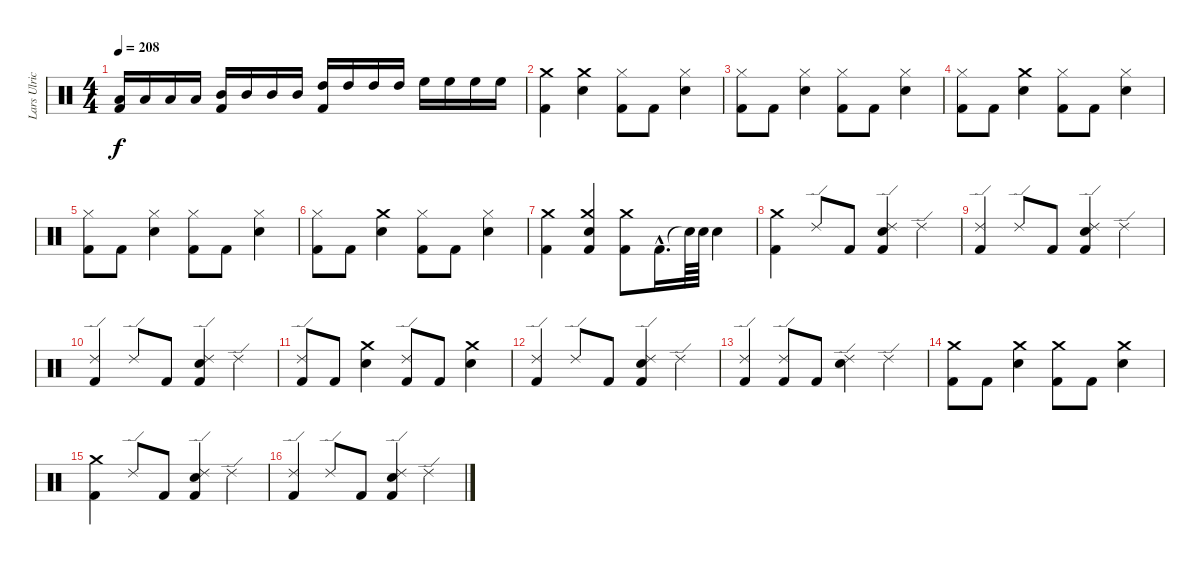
\track ("Lars Ulrich (Drums)" "Lars Ulric") {instrument percussion}
\staff {score}
\articulation defaults
\ts (4 4)
\tempo 208
\clef neutral
\ks c
("Low Tom (hit)" "Kick (hit) 2").16{dy f} "Low Tom (hit)".16 "Low Tom (hit)".16 "Low Tom (hit)".16 ("Mid Tom (hit)" "Kick (hit) 2").16 "Mid Tom (hit)".16 "Mid Tom (hit)".16 "Mid Tom (hit)".16 ("High Tom (hit)" "Kick (hit) 2").16 "High Tom (hit)".16 "High Tom (hit)".16 "High Tom (hit)".16 "High Floor Tom (hit)".16 "High Floor Tom (hit)".16 "High Floor Tom (hit)".16 "High Floor Tom (hit)".16 |
("Kick (hit) 2" "Crash medium (hit)").4 ("Snare (hit) 2" "Crash medium (hit)").4 ("Hi-Hat (closed)" "Kick (hit) 2").8 "Kick (hit) 2".8 ("Hi-Hat (closed)" "Snare (hit) 2").4 |
("Kick (hit) 2" "Hi-Hat (closed)").8 "Kick (hit) 2".8 ("Snare (hit) 2" "Hi-Hat (closed)").4 ("Kick (hit) 2" "Hi-Hat (closed)").8 "Kick (hit) 2".8 ("Snare (hit) 2" "Hi-Hat (closed)").4 |
("Kick (hit) 2" "Hi-Hat (closed)").8 "Kick (hit) 2".8 ("Crash medium (hit)" "Snare (hit) 2").4 ("Kick (hit) 2" "Hi-Hat (closed)").8 "Kick (hit) 2".8 ("Snare (hit) 2" "Hi-Hat (closed)").4 |
("Kick (hit) 2" "Hi-Hat (closed)").8 "Kick (hit) 2".8 ("Snare (hit) 2" "Hi-Hat (closed)").4 ("Kick (hit) 2" "Hi-Hat (closed)").8 "Kick (hit) 2".8 ("Snare (hit) 2" "Hi-Hat (closed)").4 |
("Kick (hit) 2" "Hi-Hat (closed)").8 "Kick (hit) 2".8 ("Crash medium (hit)" "Snare (hit) 2").4 ("Kick (hit) 2" "Hi-Hat (closed)").8 "Kick (hit) 2".8 ("Snare (hit) 2" "Hi-Hat (closed)").4 |
("Kick (hit) 2" "Crash medium (hit)").4 ("Kick (hit) 2" "Snare (hit) 2" "Crash medium (hit)").4 ("Kick (hit) 2" "Crash medium (hit)").8 "Kick (hit) 2"{hac}.16{d} "Snare (hit)"{t}.64 "Snare (hit) 2".64 "Snare (hit) 2".4 |
("Kick (hit) 2" "Crash medium (hit)").4 "Ride (edge) 2".8 "Kick (hit) 2".8 ("Kick (hit) 2" "Snare (hit) 2" "Ride (edge) 2").4 "Ride (edge) 2".4 |
("Kick (hit) 2" "Ride (edge) 2").4 "Ride (edge) 2".8 "Kick (hit) 2".8 ("Kick (hit) 2" "Snare (hit) 2" "Ride (edge) 2").4 "Ride (edge) 2".4 |
("Kick (hit) 2" "Ride (edge) 2").4 "Ride (edge) 2".8 "Kick (hit) 2".8 ("Kick (hit) 2" "Snare (hit) 2" "Ride (edge) 2").4 "Ride (edge) 2".4 |
("Ride (edge) 2" "Kick (hit) 2").8 "Kick (hit) 2".8 ("Snare (hit) 2" "Crash medium (hit)").4 ("Ride (edge) 2" "Kick (hit) 2").8 "Kick (hit) 2".8 ("Snare (hit) 2" "Crash medium (hit)").4 |
("Ride (edge) 2" "Kick (hit) 2").4 "Ride (edge) 2".8 "Kick (hit) 2".8 ("Ride (edge) 2" "Snare (hit) 2" "Kick (hit) 2").4 "Ride (edge) 2".4 |
("Kick (hit) 2" "Ride (edge) 2").4 ("Ride (edge) 2" "Kick (hit) 2").8 "Kick (hit) 2".8 ("Snare (hit) 2" "Ride (edge) 2").4 "Ride (edge) 2".4 |
("Kick (hit) 2" "Crash medium (hit)").8 "Kick (hit) 2".8 ("Snare (hit) 2" "Crash medium (hit)").4 ("Kick (hit) 2" "Crash medium (hit)").8 "Kick (hit) 2".8 ("Snare (hit) 2" "Crash medium (hit)").4 |
("Kick (hit) 2" "Crash medium (hit)").4 "Ride (edge) 2".8 "Kick (hit) 2".8 ("Kick (hit) 2" "Snare (hit) 2" "Ride (edge) 2").4 "Ride (edge) 2".4 |
("Kick (hit) 2" "Ride (edge) 2").4 "Ride (edge) 2".8 "Kick (hit) 2".8 ("Kick (hit) 2" "Snare (hit) 2" "Ride (edge) 2").4 "Ride (edge) 2".4
